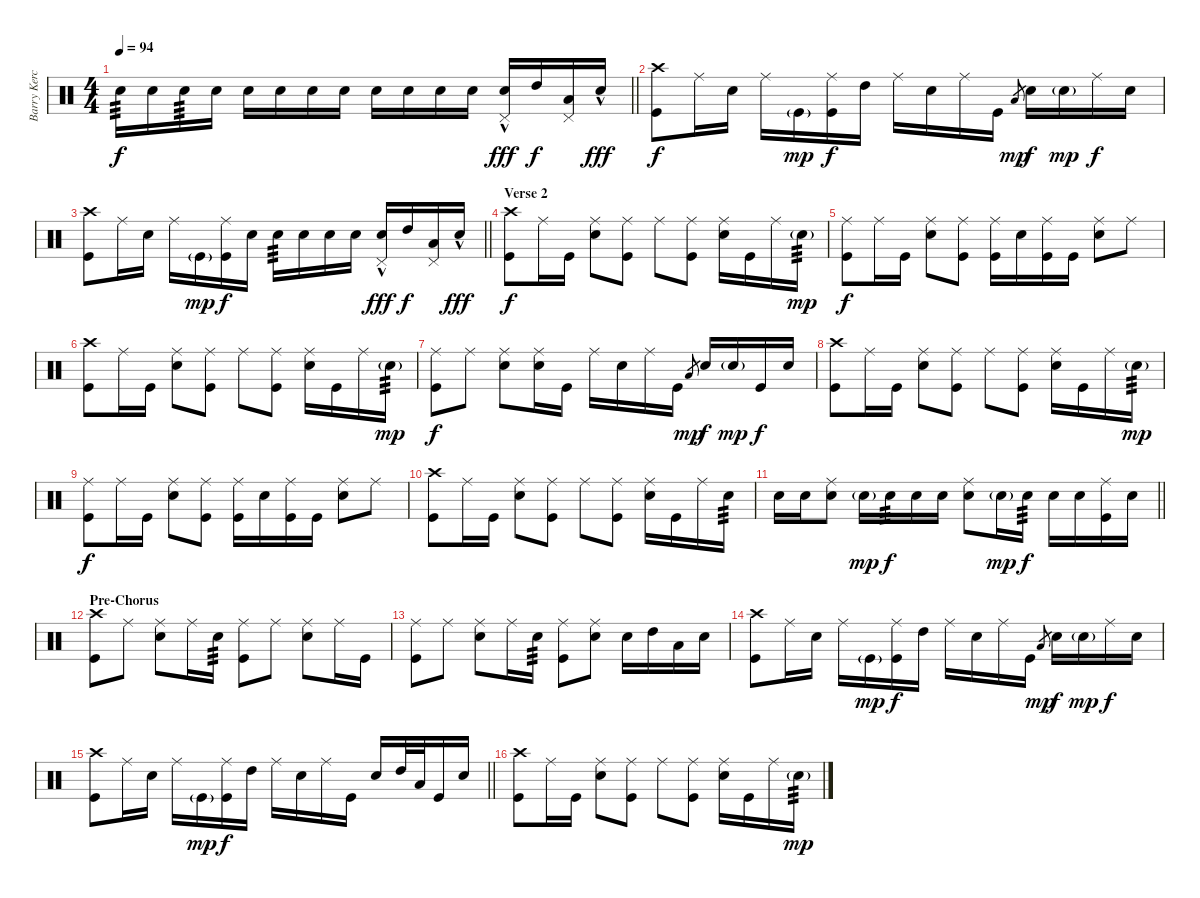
\track ("Barry Kerch" "Barry Kerc") {instrument percussion}
\staff {score}
\articulation defaults
\ts (4 4)
\tempo 94
\clef neutral
\barLineRight lightlight
\ks c "Snare (hit) 2".16{tp 3 dy f} "Snare (hit) 2".16 "Snare (hit) 2".16{tp 3} "Snare (hit) 2".16 "Snare (hit) 2".16 "Snare (hit) 2".16 "Snare (hit) 2".16 "Snare (hit) 2".16 "Snare (hit) 2".16 "Snare (hit) 2".16 "Snare (hit) 2".16 "Snare (hit) 2".16
("Snare (hit) 2"{hac} "Pedal Hi-Hat (hit)").16{dy fff} "High Tom (hit)".16{dy f} ("Low Tom (hit)" "Pedal Hi-Hat (hit)").16 "Snare (hit) 2"{hac}.16{dy fff} |
("Crash high (hit)" "Kick (hit)").8{dy f} "Ride (middle)".16 "Snare (hit) 2".16 "Ride (middle)".16 "Kick (hit)"{g}.16{dy mp} ("Ride (middle)" "Kick (hit)").16{dy f} "High Tom (hit)".16 "Ride (middle)".16 "Snare (hit) 2".16 "Ride (middle)".16 "Kick (hit)".16 "Low Tom (hit)".8{gr dy mp} "Snare (hit) 2".16{dy f} "Snare (hit) 2"{g}.16{dy mp} "Ride (middle)".16{dy f} "Snare (hit) 2".16 |
\barLineRight lightlight
("Crash high (hit)" "Kick (hit)").8 "Ride (middle)".16 "Snare (hit) 2".16 "Ride (middle)".16 "Kick (hit)"{g}.16{dy mp} ("Ride (middle)" "Kick (hit)").16{dy f} "Snare (hit) 2".16 "Snare (hit) 2".16{tp 3} "Snare (hit) 2".16 "Snare (hit) 2".16 "Snare (hit) 2".16 ("Snare (hit) 2"{hac} "Pedal Hi-Hat (hit)").16{dy fff} "High Tom (hit)".16{dy f} ("Low Tom (hit)" "Pedal Hi-Hat (hit)").16 "Snare (hit) 2"{hac}.16{dy fff} |
\section ("" "Verse 2")
("Crash high (hit)" "Kick (hit)").8{dy f} "Ride (middle)".16 "Kick (hit)".16 ("Ride (middle)" "Snare (hit) 2").8 ("Ride (middle)" "Kick (hit)").8 "Ride (middle)".8 ("Ride (middle)" "Kick (hit)").8 ("Ride (middle)" "Snare (hit) 2").16 "Kick (hit)".16 "Ride (middle)".16 "Snare (hit) 2"{g}.16{tp 3 dy mp} |
("Ride (middle)" "Kick (hit)").8{dy f} "Ride (middle)".16 "Kick (hit)".16 ("Ride (middle)" "Snare (hit) 2").8 ("Ride (middle)" "Kick (hit)").8 ("Ride (middle)" "Kick (hit)").16 "Snare (hit) 2".16 ("Ride (middle)" "Kick (hit)").16 "Kick (hit)".16 ("Ride (middle)" "Snare (hit) 2").8 "Ride (middle)".8 |
("Crash high (hit)" "Kick (hit)").8 "Ride (middle)".16 "Kick (hit)".16 ("Ride (middle)" "Snare (hit) 2").8 ("Ride (middle)" "Kick (hit)").8 "Ride (middle)".8 ("Ride (middle)" "Kick (hit)").8 ("Ride (middle)" "Snare (hit) 2").16 "Kick (hit)".16 "Ride (middle)".16 "Snare (hit) 2"{g}.16{tp 3 dy mp} |
("Ride (middle)" "Kick (hit)").8{dy f} "Ride (middle)".8 ("Ride (middle)" "Snare (hit) 2").8 ("Ride (middle)" "Snare (hit) 2").16 "Kick (hit)".16 "Ride (middle)".16 "Snare (hit) 2".16 "Ride (middle)".16 "Kick (hit)".16 "Low Tom (hit)".8{gr dy mp} "Snare (hit) 2".16{dy f} "Snare (hit) 2"{g}.16{dy mp} "Kick (hit)".16{dy f} "Snare (hit) 2".16 |
("Crash high (hit)" "Kick (hit)").8 "Ride (middle)".16 "Kick (hit)".16 ("Ride (middle)" "Snare (hit) 2").8 ("Ride (middle)" "Kick (hit)").8 "Ride (middle)".8 ("Ride (middle)" "Kick (hit)").8 ("Ride (middle)" "Snare (hit) 2").16 "Kick (hit)".16 "Ride (middle)".16 "Snare (hit) 2"{g}.16{tp 3 dy mp} |
("Ride (middle)" "Kick (hit)").8{dy f} "Ride (middle)".16 "Kick (hit)".16 ("Ride (middle)" "Snare (hit) 2").8 ("Ride (middle)" "Kick (hit)").8 ("Ride (middle)" "Kick (hit)").16 "Snare (hit) 2".16 ("Ride (middle)" "Kick (hit)").16 "Kick (hit)".16 ("Ride (middle)" "Snare (hit) 2").8 "Ride (middle)".8 |
("Crash high (hit)" "Kick (hit)").8 "Ride (middle)".16 "Kick (hit)".16 ("Ride (middle)" "Snare (hit) 2").8 ("Ride (middle)" "Kick (hit)").8 "Ride (middle)".8 ("Ride (middle)" "Kick (hit)").8 ("Ride (middle)" "Snare (hit) 2").16 "Kick (hit)".16 "Ride (middle)".16 "Snare (hit) 2".16{tp 3} |
\barLineRight lightlight "Snare (hit) 2".16 "Snare (hit) 2".16
("Ride (middle)" "Snare (hit) 2").8 "Snare (hit) 2"{g}.16{dy mp} "Snare (hit) 2".16{tp 3 dy f} "Snare (hit) 2".16 "Snare (hit) 2".16 ("Ride (middle)" "Snare (hit) 2").8 "Snare (hit) 2"{g}.16{dy mp} "Snare (hit) 2".16{tp 3 dy f} "Snare (hit) 2".16 "Snare (hit) 2".16 ("Ride (middle)" "Kick (hit)").16 "Snare (hit) 2".16 |
\section ("" "Pre-Chorus")
("Crash high (hit)" "Kick (hit)").8 "Ride (middle)".8 ("Ride (middle)" "Snare (hit) 2").8 "Ride (middle)".16 "Snare (hit) 2".16{tp 3} ("Ride (middle)" "Kick (hit)").8 "Ride (middle)".8 ("Ride (middle)" "Snare (hit) 2").8 "Ride (middle)".16 "Kick (hit)".16 |
("Ride (middle)" "Kick (hit)").8 "Ride (middle)".8 ("Ride (middle)" "Snare (hit) 2").8 "Ride (middle)".16 "Snare (hit) 2".16{tp 3} ("Ride (middle)" "Kick (hit)").8 ("Ride (middle)" "Snare (hit) 2").8 "Snare (hit) 2".16 "High Tom (hit)".16 "Low Tom (hit)".16 "Snare (hit) 2".16 |
("Crash high (hit)" "Kick (hit)").8 "Ride (middle)".16 "Snare (hit) 2".16 "Ride (middle)".16 "Kick (hit)"{g}.16{dy mp} ("Ride (middle)" "Kick (hit)").16{dy f} "High Tom (hit)".16 "Ride (middle)".16 "Snare (hit) 2".16 "Ride (middle)".16 "Kick (hit)".16 "Low Tom (hit)".8{gr dy mp} "Snare (hit) 2".16{dy f} "Snare (hit) 2"{g}.16{dy mp} "Ride (middle)".16{dy f} "Snare (hit) 2".16 |
\barLineRight lightlight
("Crash high (hit)" "Kick (hit)").8 "Ride (middle)".16 "Snare (hit) 2".16 "Ride (middle)".16 "Kick (hit)"{g}.16{dy mp} ("Ride (middle)" "Kick (hit)").16{dy f} "High Tom (hit)".16 "Ride (middle)".16 "Snare (hit) 2".16 "Ride (middle)".16 "Kick (hit)".16 "Snare (hit) 2".16 "High Tom (hit)".32 "Low Tom (hit)".32 "Kick (hit)".16 "Snare (hit) 2".16 |
("Crash high (hit)" "Kick (hit)").8 "Ride (middle)".16 "Kick (hit)".16 ("Ride (middle)" "Snare (hit) 2").8 ("Ride (middle)" "Kick (hit)").8 "Ride (middle)".8 ("Ride (middle)" "Kick (hit)").8 ("Ride (middle)" "Snare (hit) 2").16 "Kick (hit)".16 "Ride (middle)".16 "Snare (hit) 2"{g}.16{tp 3 dy mp}
